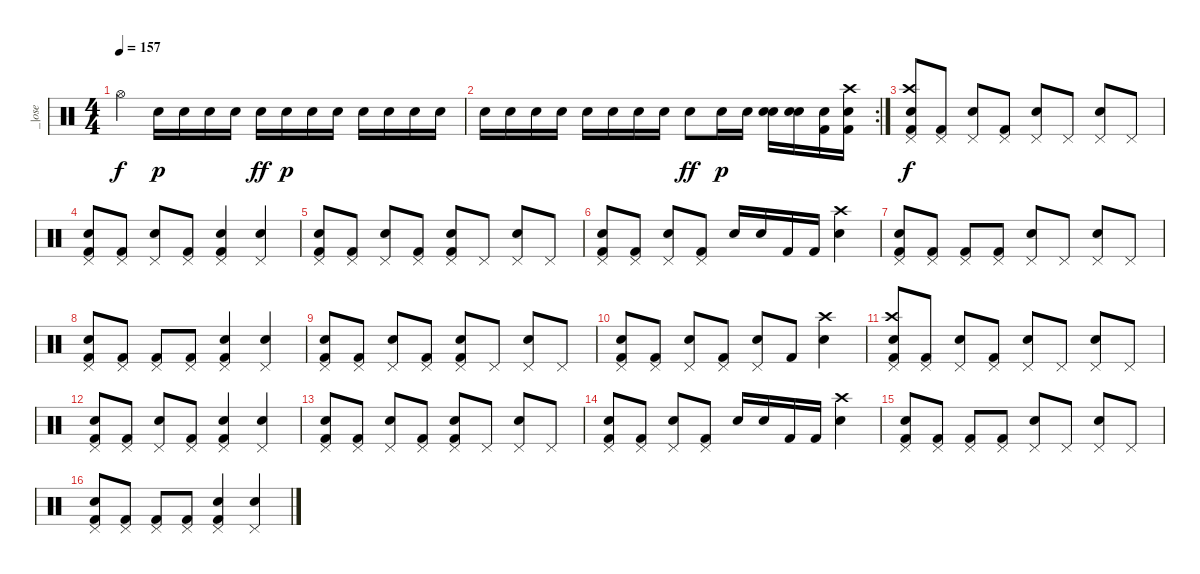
\track ("_|ose" "_|ose") {instrument percussion}
\staff {score}
\articulation defaults
\ts (4 4)
\tempo 157
\clef neutral
\ks c "Hi-Hat (open)".4{dy f} "Electric Snare (hit)".16{dy p} "Electric Snare (hit)".16 "Electric Snare (hit)".16 "Electric Snare (hit)".16 "Electric Snare (hit)".16{dy ff} "Electric Snare (hit)".16{dy p} "Electric Snare (hit)".16 "Electric Snare (hit)".16 "Electric Snare (hit)".16 "Electric Snare (hit)".16 "Electric Snare (hit)".16 "Electric Snare (hit)".16
|
\rc 2 "Electric Snare (hit)".16 "Electric Snare (hit)".16 "Electric Snare (hit)".16 "Electric Snare (hit)".16 "Electric Snare (hit)".16 "Electric Snare (hit)".16 "Electric Snare (hit)".16 "Electric Snare (hit)".16 "Electric Snare (hit)".8{dy ff} "Electric Snare (hit)".16{dy p} "Electric Snare (hit)".16
("Snare (hit) 2" "Electric Snare (hit)").16 ("Snare (hit) 2" "Electric Snare (hit)").16 ("Kick (hit) 2" "Electric Snare (hit)").16 ("Crash high (hit)" "Kick (hit) 2" "Electric Snare (hit)").16 |
("Crash high (hit)" "Pedal Hi-Hat (hit)" "Electric Snare (hit)" "Kick (hit) 2").8{dy f} ("Pedal Hi-Hat (hit)" "Kick (hit) 2").8 ("Pedal Hi-Hat (hit)" "Electric Snare (hit)").8 ("Pedal Hi-Hat (hit)" "Kick (hit) 2").8 ("Pedal Hi-Hat (hit)" "Electric Snare (hit)").8 "Pedal Hi-Hat (hit)".8 ("Pedal Hi-Hat (hit)" "Electric Snare (hit)").8 "Pedal Hi-Hat (hit)".8 |
("Pedal Hi-Hat (hit)" "Electric Snare (hit)" "Kick (hit) 2").8 ("Pedal Hi-Hat (hit)" "Kick (hit) 2").8 ("Pedal Hi-Hat (hit)" "Electric Snare (hit)").8 ("Pedal Hi-Hat (hit)" "Kick (hit) 2").8 ("Pedal Hi-Hat (hit)" "Electric Snare (hit)" "Kick (hit) 2").4 ("Pedal Hi-Hat (hit)" "Electric Snare (hit)").4 |
("Pedal Hi-Hat (hit)" "Electric Snare (hit)" "Kick (hit) 2").8 ("Pedal Hi-Hat (hit)" "Kick (hit) 2").8 ("Pedal Hi-Hat (hit)" "Electric Snare (hit)").8 ("Pedal Hi-Hat (hit)" "Kick (hit) 2").8 ("Pedal Hi-Hat (hit)" "Electric Snare (hit)" "Kick (hit) 2").8 "Pedal Hi-Hat (hit)".8 ("Pedal Hi-Hat (hit)" "Electric Snare (hit)").8 "Pedal Hi-Hat (hit)".8 |
("Pedal Hi-Hat (hit)" "Electric Snare (hit)" "Kick (hit) 2").8 ("Pedal Hi-Hat (hit)" "Kick (hit) 2").8 ("Pedal Hi-Hat (hit)" "Electric Snare (hit)").8 ("Pedal Hi-Hat (hit)" "Kick (hit) 2").8 "Electric Snare (hit)".16 "Electric Snare (hit)".16 "Kick (hit) 2".16 "Kick (hit) 2".16 ("Crash high (hit)" "Electric Snare (hit)").4 |
("Pedal Hi-Hat (hit)" "Electric Snare (hit)" "Kick (hit) 2").8 ("Pedal Hi-Hat (hit)" "Kick (hit) 2").8 ("Pedal Hi-Hat (hit)" "Kick (hit) 2").8 ("Pedal Hi-Hat (hit)" "Kick (hit) 2").8 ("Pedal Hi-Hat (hit)" "Electric Snare (hit)").8 "Pedal Hi-Hat (hit)".8 ("Pedal Hi-Hat (hit)" "Electric Snare (hit)").8 "Pedal Hi-Hat (hit)".8 |
("Pedal Hi-Hat (hit)" "Electric Snare (hit)" "Kick (hit) 2").8 ("Pedal Hi-Hat (hit)" "Kick (hit) 2").8 ("Pedal Hi-Hat (hit)" "Kick (hit) 2").8 ("Pedal Hi-Hat (hit)" "Kick (hit) 2").8 ("Pedal Hi-Hat (hit)" "Electric Snare (hit)" "Kick (hit) 2").4 ("Pedal Hi-Hat (hit)" "Electric Snare (hit)").4 |
("Pedal Hi-Hat (hit)" "Electric Snare (hit)" "Kick (hit) 2").8 ("Pedal Hi-Hat (hit)" "Kick (hit) 2").8 ("Pedal Hi-Hat (hit)" "Electric Snare (hit)").8 ("Pedal Hi-Hat (hit)" "Kick (hit) 2").8 ("Pedal Hi-Hat (hit)" "Electric Snare (hit)" "Kick (hit) 2").8 "Pedal Hi-Hat (hit)".8 ("Pedal Hi-Hat (hit)" "Electric Snare (hit)").8 "Pedal Hi-Hat (hit)".8 |
("Pedal Hi-Hat (hit)" "Electric Snare (hit)" "Kick (hit) 2").8 ("Pedal Hi-Hat (hit)" "Kick (hit) 2").8 ("Pedal Hi-Hat (hit)" "Electric Snare (hit)").8 ("Pedal Hi-Hat (hit)" "Kick (hit) 2").8 ("Pedal Hi-Hat (hit)" "Electric Snare (hit)").8 "Kick (hit) 2".8 ("Crash high (hit)" "Electric Snare (hit)").4 |
("Crash high (hit)" "Pedal Hi-Hat (hit)" "Electric Snare (hit)" "Kick (hit) 2").8 ("Pedal Hi-Hat (hit)" "Kick (hit) 2").8 ("Pedal Hi-Hat (hit)" "Electric Snare (hit)").8 ("Pedal Hi-Hat (hit)" "Kick (hit) 2").8 ("Pedal Hi-Hat (hit)" "Electric Snare (hit)").8 "Pedal Hi-Hat (hit)".8 ("Pedal Hi-Hat (hit)" "Electric Snare (hit)").8 "Pedal Hi-Hat (hit)".8 |
("Pedal Hi-Hat (hit)" "Electric Snare (hit)" "Kick (hit) 2").8 ("Pedal Hi-Hat (hit)" "Kick (hit) 2").8 ("Pedal Hi-Hat (hit)" "Electric Snare (hit)").8 ("Pedal Hi-Hat (hit)" "Kick (hit) 2").8 ("Pedal Hi-Hat (hit)" "Electric Snare (hit)" "Kick (hit) 2").4 ("Pedal Hi-Hat (hit)" "Electric Snare (hit)").4 |
("Pedal Hi-Hat (hit)" "Electric Snare (hit)" "Kick (hit) 2").8 ("Pedal Hi-Hat (hit)" "Kick (hit) 2").8 ("Pedal Hi-Hat (hit)" "Electric Snare (hit)").8 ("Pedal Hi-Hat (hit)" "Kick (hit) 2").8 ("Pedal Hi-Hat (hit)" "Electric Snare (hit)" "Kick (hit) 2").8 "Pedal Hi-Hat (hit)".8 ("Pedal Hi-Hat (hit)" "Electric Snare (hit)").8 "Pedal Hi-Hat (hit)".8 |
("Pedal Hi-Hat (hit)" "Electric Snare (hit)" "Kick (hit) 2").8 ("Pedal Hi-Hat (hit)" "Kick (hit) 2").8 ("Pedal Hi-Hat (hit)" "Electric Snare (hit)").8 ("Pedal Hi-Hat (hit)" "Kick (hit) 2").8 "Electric Snare (hit)".16 "Electric Snare (hit)".16 "Kick (hit) 2".16 "Kick (hit) 2".16 ("Crash high (hit)" "Electric Snare (hit)").4 |
("Pedal Hi-Hat (hit)" "Electric Snare (hit)" "Kick (hit) 2").8 ("Pedal Hi-Hat (hit)" "Kick (hit) 2").8 ("Pedal Hi-Hat (hit)" "Kick (hit) 2").8 ("Pedal Hi-Hat (hit)" "Kick (hit) 2").8 ("Pedal Hi-Hat (hit)" "Electric Snare (hit)").8 "Pedal Hi-Hat (hit)".8 ("Pedal Hi-Hat (hit)" "Electric Snare (hit)").8 "Pedal Hi-Hat (hit)".8 |
("Pedal Hi-Hat (hit)" "Electric Snare (hit)" "Kick (hit) 2").8 ("Pedal Hi-Hat (hit)" "Kick (hit) 2").8 ("Pedal Hi-Hat (hit)" "Kick (hit) 2").8 ("Pedal Hi-Hat (hit)" "Kick (hit) 2").8 ("Pedal Hi-Hat (hit)" "Electric Snare (hit)" "Kick (hit) 2").4 ("Pedal Hi-Hat (hit)" "Electric Snare (hit)").4
